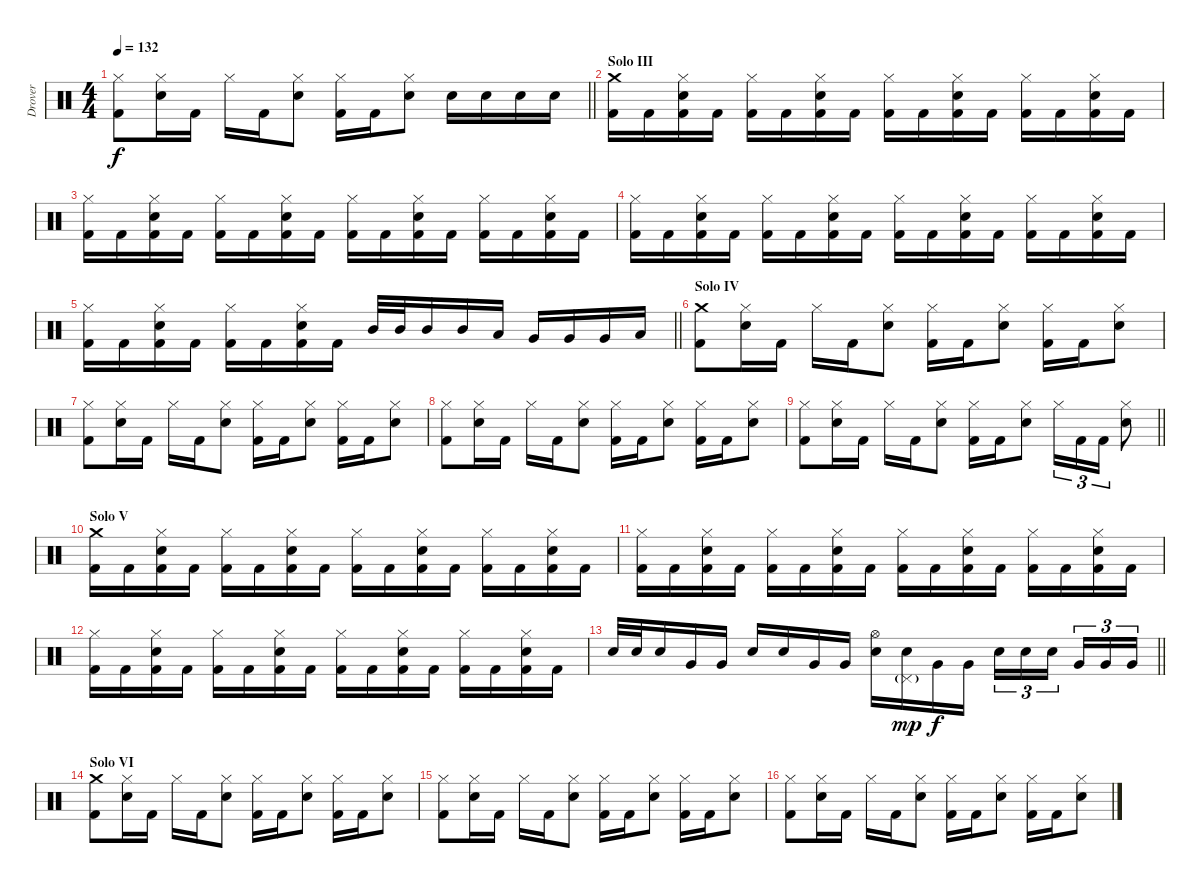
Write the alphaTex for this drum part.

\track ("Drover" "Drover") {instrument percussion}
\staff {score}
\articulation defaults
\ts (4 4)
\tempo 132
\clef neutral
\barLineRight lightlight
\ks c
("Hi-Hat (closed)" "Kick (hit) 2").8{dy f} ("Hi-Hat (closed)" "Snare (hit) 2").16 "Kick (hit) 2".16 "Hi-Hat (closed)".16 "Kick (hit) 2".16 ("Hi-Hat (closed)" "Snare (hit) 2").8 ("Hi-Hat (closed)" "Kick (hit) 2").16 "Kick (hit) 2".16 ("Hi-Hat (closed)" "Snare (hit) 2").8 "Snare (hit) 2".16 "Snare (hit) 2".16 "Snare (hit) 2".16 "Snare (hit) 2".16 |
\section ("" "Solo III")
("Crash medium (hit)" "Kick (hit) 2").16 "Kick (hit) 2".16 ("Hi-Hat (closed)" "Snare (hit) 2" "Kick (hit) 2").16 "Kick (hit) 2".16 ("Hi-Hat (closed)" "Kick (hit) 2").16 "Kick (hit) 2".16 ("Hi-Hat (closed)" "Snare (hit) 2" "Kick (hit) 2").16 "Kick (hit) 2".16 ("Hi-Hat (closed)" "Kick (hit) 2").16 "Kick (hit) 2".16 ("Hi-Hat (closed)" "Snare (hit) 2" "Kick (hit) 2").16 "Kick (hit) 2".16 ("Hi-Hat (closed)" "Kick (hit) 2").16 "Kick (hit) 2".16 ("Hi-Hat (closed)" "Snare (hit) 2" "Kick (hit) 2").16 "Kick (hit) 2".16 |
("Hi-Hat (closed)" "Kick (hit) 2").16 "Kick (hit) 2".16 ("Hi-Hat (closed)" "Snare (hit) 2" "Kick (hit) 2").16 "Kick (hit) 2".16 ("Hi-Hat (closed)" "Kick (hit) 2").16 "Kick (hit) 2".16 ("Hi-Hat (closed)" "Snare (hit) 2" "Kick (hit) 2").16 "Kick (hit) 2".16 ("Hi-Hat (closed)" "Kick (hit) 2").16 "Kick (hit) 2".16 ("Hi-Hat (closed)" "Snare (hit) 2" "Kick (hit) 2").16 "Kick (hit) 2".16 ("Hi-Hat (closed)" "Kick (hit) 2").16 "Kick (hit) 2".16 ("Hi-Hat (closed)" "Snare (hit) 2" "Kick (hit) 2").16 "Kick (hit) 2".16 |
("Hi-Hat (closed)" "Kick (hit) 2").16 "Kick (hit) 2".16 ("Hi-Hat (closed)" "Snare (hit) 2" "Kick (hit) 2").16 "Kick (hit) 2".16 ("Hi-Hat (closed)" "Kick (hit) 2").16 "Kick (hit) 2".16 ("Hi-Hat (closed)" "Snare (hit) 2" "Kick (hit) 2").16 "Kick (hit) 2".16 ("Hi-Hat (closed)" "Kick (hit) 2").16 "Kick (hit) 2".16 ("Hi-Hat (closed)" "Snare (hit) 2" "Kick (hit) 2").16 "Kick (hit) 2".16 ("Hi-Hat (closed)" "Kick (hit) 2").16 "Kick (hit) 2".16 ("Hi-Hat (closed)" "Snare (hit) 2" "Kick (hit) 2").16 "Kick (hit) 2".16 |
\barLineRight lightlight
("Hi-Hat (closed)" "Kick (hit) 2").16 "Kick (hit) 2".16 ("Hi-Hat (closed)" "Snare (hit) 2" "Kick (hit) 2").16 "Kick (hit) 2".16 ("Hi-Hat (closed)" "Kick (hit) 2").16 "Kick (hit) 2".16 ("Hi-Hat (closed)" "Snare (hit) 2" "Kick (hit) 2").16 "Kick (hit) 2".16 "Mid Tom (hit)".32 "Mid Tom (hit)".32 "Mid Tom (hit)".16 "Mid Tom (hit)".16 "Low Tom (hit)".16 "Very Low Tom (hit)".16 "Very Low Tom (hit)".16 "Very Low Tom (hit)".16 "Low Floor Tom (hit)".16 |
\section ("" "Solo IV")
("Crash medium (hit)" "Kick (hit) 2").8 ("Hi-Hat (closed)" "Snare (hit) 2").16 "Kick (hit) 2".16 "Hi-Hat (closed)".16 "Kick (hit) 2".16 ("Hi-Hat (closed)" "Snare (hit) 2").8 ("Hi-Hat (closed)" "Kick (hit) 2").16 "Kick (hit) 2".16 ("Hi-Hat (closed)" "Snare (hit) 2").8 ("Hi-Hat (closed)" "Kick (hit) 2").16 "Kick (hit) 2".16 ("Hi-Hat (closed)" "Snare (hit) 2").8 |
("Hi-Hat (closed)" "Kick (hit) 2").8 ("Hi-Hat (closed)" "Snare (hit) 2").16 "Kick (hit) 2".16 "Hi-Hat (closed)".16 "Kick (hit) 2".16 ("Hi-Hat (closed)" "Snare (hit) 2").8 ("Hi-Hat (closed)" "Kick (hit) 2").16 "Kick (hit) 2".16 ("Hi-Hat (closed)" "Snare (hit) 2").8 ("Hi-Hat (closed)" "Kick (hit) 2").16 "Kick (hit) 2".16 ("Hi-Hat (closed)" "Snare (hit) 2").8 |
("Hi-Hat (closed)" "Kick (hit) 2").8 ("Hi-Hat (closed)" "Snare (hit) 2").16 "Kick (hit) 2".16 "Hi-Hat (closed)".16 "Kick (hit) 2".16 ("Hi-Hat (closed)" "Snare (hit) 2").8 ("Hi-Hat (closed)" "Kick (hit) 2").16 "Kick (hit) 2".16 ("Hi-Hat (closed)" "Snare (hit) 2").8 ("Hi-Hat (closed)" "Kick (hit) 2").16 "Kick (hit) 2".16 ("Hi-Hat (closed)" "Snare (hit) 2").8 |
\barLineRight lightlight
("Hi-Hat (closed)" "Kick (hit) 2").8 ("Hi-Hat (closed)" "Snare (hit) 2").16 "Kick (hit) 2".16 "Hi-Hat (closed)".16 "Kick (hit) 2".16 ("Hi-Hat (closed)" "Snare (hit) 2").8 ("Hi-Hat (closed)" "Kick (hit) 2").16 "Kick (hit) 2".16 ("Hi-Hat (closed)" "Snare (hit) 2").8 "Hi-Hat (closed)".16{tu (3 2)} "Kick (hit) 2".16{tu (3 2)} "Kick (hit) 2".16{tu (3 2)} ("Hi-Hat (closed)" "Snare (hit) 2").8 |
\section ("" "Solo V")
("Crash medium (hit)" "Kick (hit) 2").16 "Kick (hit) 2".16 ("Hi-Hat (closed)" "Snare (hit) 2" "Kick (hit) 2").16 "Kick (hit) 2".16 ("Hi-Hat (closed)" "Kick (hit) 2").16 "Kick (hit) 2".16 ("Hi-Hat (closed)" "Snare (hit) 2" "Kick (hit) 2").16 "Kick (hit) 2".16 ("Hi-Hat (closed)" "Kick (hit) 2").16 "Kick (hit) 2".16 ("Hi-Hat (closed)" "Snare (hit) 2" "Kick (hit) 2").16 "Kick (hit) 2".16 ("Hi-Hat (closed)" "Kick (hit) 2").16 "Kick (hit) 2".16 ("Hi-Hat (closed)" "Snare (hit) 2" "Kick (hit) 2").16 "Kick (hit) 2".16 |
("Hi-Hat (closed)" "Kick (hit) 2").16 "Kick (hit) 2".16 ("Hi-Hat (closed)" "Snare (hit) 2" "Kick (hit) 2").16 "Kick (hit) 2".16 ("Hi-Hat (closed)" "Kick (hit) 2").16 "Kick (hit) 2".16 ("Hi-Hat (closed)" "Snare (hit) 2" "Kick (hit) 2").16 "Kick (hit) 2".16 ("Hi-Hat (closed)" "Kick (hit) 2").16 "Kick (hit) 2".16 ("Hi-Hat (closed)" "Snare (hit) 2" "Kick (hit) 2").16 "Kick (hit) 2".16 ("Hi-Hat (closed)" "Kick (hit) 2").16 "Kick (hit) 2".16 ("Hi-Hat (closed)" "Snare (hit) 2" "Kick (hit) 2").16 "Kick (hit) 2".16 |
("Hi-Hat (closed)" "Kick (hit) 2").16 "Kick (hit) 2".16 ("Hi-Hat (closed)" "Snare (hit) 2" "Kick (hit) 2").16 "Kick (hit) 2".16 ("Hi-Hat (closed)" "Kick (hit) 2").16 "Kick (hit) 2".16 ("Hi-Hat (closed)" "Snare (hit) 2" "Kick (hit) 2").16 "Kick (hit) 2".16 ("Hi-Hat (closed)" "Kick (hit) 2").16 "Kick (hit) 2".16 ("Hi-Hat (closed)" "Snare (hit) 2" "Kick (hit) 2").16 "Kick (hit) 2".16 ("Hi-Hat (closed)" "Kick (hit) 2").16 "Kick (hit) 2".16 ("Hi-Hat (closed)" "Snare (hit) 2" "Kick (hit) 2").16 "Kick (hit) 2".16 |
\barLineRight lightlight "Snare (hit) 2".32 "Snare (hit) 2".32 "Snare (hit) 2".16 "Very Low Tom (hit)".16 "Very Low Tom (hit)".16 "Snare (hit) 2".16 "Snare (hit) 2".16 "Very Low Tom (hit)".16 "Very Low Tom (hit)".16
("Hi-Hat (open)" "Snare (hit) 2").16 ("Pedal Hi-Hat (hit)"{g} "Snare (hit) 2").16{dy mp} "Very Low Tom (hit)".16{dy f} "Very Low Tom (hit)".16 "Snare (hit) 2".16{tu (3 2)} "Snare (hit) 2".16{tu (3 2)} "Snare (hit) 2".16{tu (3 2) beam splitsecondary} "Very Low Tom (hit)".16{tu (3 2)} "Very Low Tom (hit)".16{tu (3 2)} "Very Low Tom (hit)".16{tu (3 2)} |
\section ("" "Solo VI")
("Crash medium (hit)" "Kick (hit) 2").8 ("Hi-Hat (closed)" "Snare (hit) 2").16 "Kick (hit) 2".16 "Hi-Hat (closed)".16 "Kick (hit) 2".16 ("Hi-Hat (closed)" "Snare (hit) 2").8 ("Hi-Hat (closed)" "Kick (hit) 2").16 "Kick (hit) 2".16 ("Hi-Hat (closed)" "Snare (hit) 2").8 ("Hi-Hat (closed)" "Kick (hit) 2").16 "Kick (hit) 2".16 ("Hi-Hat (closed)" "Snare (hit) 2").8 |
("Hi-Hat (closed)" "Kick (hit) 2").8 ("Hi-Hat (closed)" "Snare (hit) 2").16 "Kick (hit) 2".16 "Hi-Hat (closed)".16 "Kick (hit) 2".16 ("Hi-Hat (closed)" "Snare (hit) 2").8 ("Hi-Hat (closed)" "Kick (hit) 2").16 "Kick (hit) 2".16 ("Hi-Hat (closed)" "Snare (hit) 2").8 ("Hi-Hat (closed)" "Kick (hit) 2").16 "Kick (hit) 2".16 ("Hi-Hat (closed)" "Snare (hit) 2").8 |
("Hi-Hat (closed)" "Kick (hit) 2").8 ("Hi-Hat (closed)" "Snare (hit) 2").16 "Kick (hit) 2".16 "Hi-Hat (closed)".16 "Kick (hit) 2".16 ("Hi-Hat (closed)" "Snare (hit) 2").8 ("Hi-Hat (closed)" "Kick (hit) 2").16 "Kick (hit) 2".16 ("Hi-Hat (closed)" "Snare (hit) 2").8 ("Hi-Hat (closed)" "Kick (hit) 2").16 "Kick (hit) 2".16 ("Hi-Hat (closed)" "Snare (hit) 2").8
